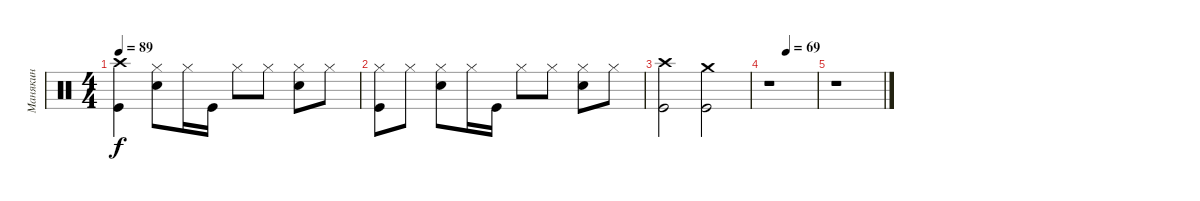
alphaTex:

\track ("Манякин" "Манякин") {instrument percussion}
\staff {score}
\articulation defaults
\ts (4 4)
\tempo 89
\clef neutral
\ks c
("Kick (hit)" "Crash high (hit)").4{dy f} ("Electric Snare (hit)" "Hi-Hat (closed)").8 "Hi-Hat (closed)".16 "Kick (hit)".16 "Hi-Hat (closed)".8 "Hi-Hat (closed)".8 ("Hi-Hat (closed)" "Electric Snare (hit)").8 "Hi-Hat (closed)".8 |
("Kick (hit)" "Hi-Hat (closed)").8 "Hi-Hat (closed)".8 ("Hi-Hat (closed)" "Electric Snare (hit)").8 "Hi-Hat (closed)".16 "Kick (hit)".16 "Hi-Hat (closed)".8 "Hi-Hat (closed)".8 ("Electric Snare (hit)" "Hi-Hat (closed)").8 "Hi-Hat (closed)".8 |
("Kick (hit)" "Crash high (hit)").2 ("Kick (hit)" "Crash medium (hit)").2 |
\tempo (69 0.375)
r.1 |
r.1
